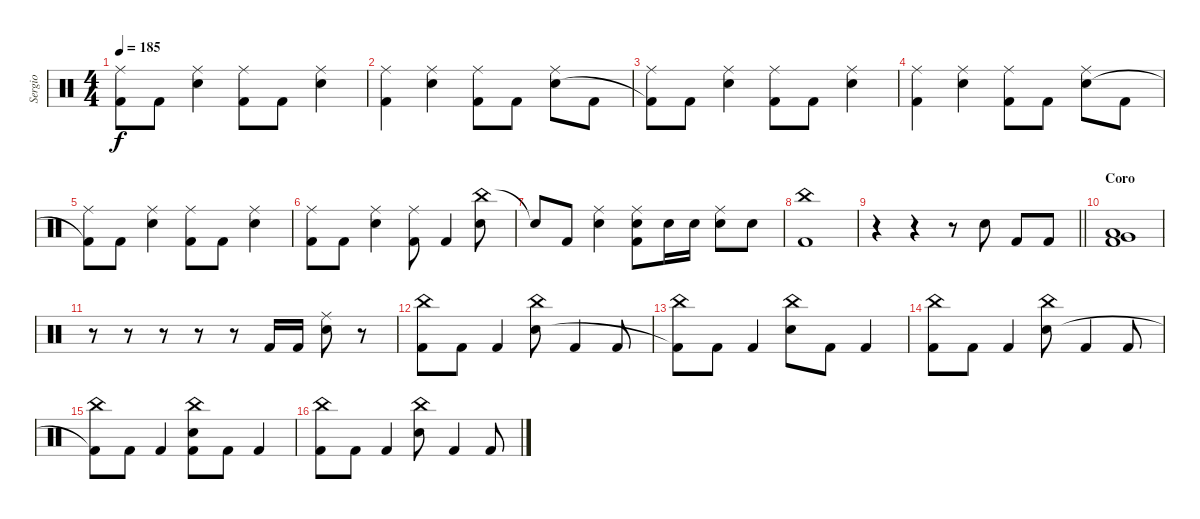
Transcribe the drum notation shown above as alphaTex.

\track ("Sergio" "Sergio") {instrument percussion}
\staff {score}
\articulation defaults
\ts (4 4)
\tempo 185
\clef neutral
\ks c
("Ride (middle)" "Kick (hit) 2"{t}).8{dy f} "Kick (hit) 2".8 ("Ride (middle)" "Electric Snare (hit)").4 ("Ride (middle)" "Kick (hit) 2").8 "Kick (hit) 2".8 ("Ride (middle)" "Electric Snare (hit)").4 |
("Ride (middle)" "Kick (hit) 2").4 ("Ride (middle)" "Electric Snare (hit)").4 ("Ride (middle)" "Kick (hit) 2").8 "Kick (hit) 2".8 ("Ride (middle)" "Electric Snare (hit)").8 "Kick (hit) 2".8 |
("Ride (middle)" "Kick (hit) 2"{t}).8 "Kick (hit) 2".8 ("Ride (middle)" "Electric Snare (hit)").4 ("Ride (middle)" "Kick (hit) 2").8 "Kick (hit) 2".8 ("Ride (middle)" "Electric Snare (hit)").4 |
("Ride (middle)" "Kick (hit) 2").4 ("Ride (middle)" "Electric Snare (hit)").4 ("Ride (middle)" "Kick (hit) 2").8 "Kick (hit) 2".8 ("Ride (middle)" "Electric Snare (hit)").8 "Kick (hit) 2".8 |
("Ride (middle)" "Kick (hit) 2"{t}).8 "Kick (hit) 2".8 ("Ride (middle)" "Electric Snare (hit)").4 ("Ride (middle)" "Kick (hit) 2").8 "Kick (hit) 2".8 ("Ride (middle)" "Electric Snare (hit)").4 |
("Ride (middle)" "Kick (hit) 2").8 "Kick (hit) 2".8 ("Ride (middle)" "Electric Snare (hit)").4 ("Ride (middle)" "Kick (hit) 2").8 "Kick (hit) 2".4 ("China (hit)" "Electric Snare (hit)").8 |
"Snare (hit)"{t}.8 "Kick (hit) 2".8 ("Ride (middle)" "Electric Snare (hit)").4 ("Ride (middle)" "Electric Snare (hit)" "Kick (hit) 2").8 "Electric Snare (hit)".16 "Electric Snare (hit)".16 ("Ride (middle)" "Electric Snare (hit)").8 "Electric Snare (hit)".8 |
("China (hit)" "Kick (hit) 2").1 |
\barLineRight lightlight
r.4 r.4 r.8 "Electric Snare (hit)".8 "Kick (hit) 2".8 "Kick (hit) 2".8 |
\section ("" "Coro")
("Very Low Tom (hit)" "Low Floor Tom (hit)" "Kick (hit) 2").1 |
r.8 r.8 r.8 r.8 r.8 "Kick (hit) 2".16 "Kick (hit) 2".16 ("Ride (middle)" "Electric Snare (hit)").8 r.8 |
("China (hit)" "Kick (hit) 2").8 "Kick (hit) 2".8 "Kick (hit) 2".4 ("China (hit)" "Electric Snare (hit)").8 "Kick (hit) 2".4 "Kick (hit) 2".8 |
("China (hit)" "Kick (hit) 2"{t}).8 "Kick (hit) 2".8 "Kick (hit) 2".4 ("China (hit)" "Electric Snare (hit)").8 "Kick (hit) 2".8 "Kick (hit) 2".4 |
("China (hit)" "Kick (hit) 2").8 "Kick (hit) 2".8 "Kick (hit) 2".4 ("China (hit)" "Electric Snare (hit)").8 "Kick (hit) 2".4 "Kick (hit) 2".8 |
("China (hit)" "Kick (hit) 2"{t}).8 "Kick (hit) 2".8 "Kick (hit) 2".4 ("China (hit)" "Electric Snare (hit)" "Kick (hit) 2").8 "Kick (hit) 2".8 "Kick (hit) 2".4 |
("China (hit)" "Kick (hit) 2").8 "Kick (hit) 2".8 "Kick (hit) 2".4 ("China (hit)" "Electric Snare (hit)").8 "Kick (hit) 2".4 "Kick (hit) 2".8
